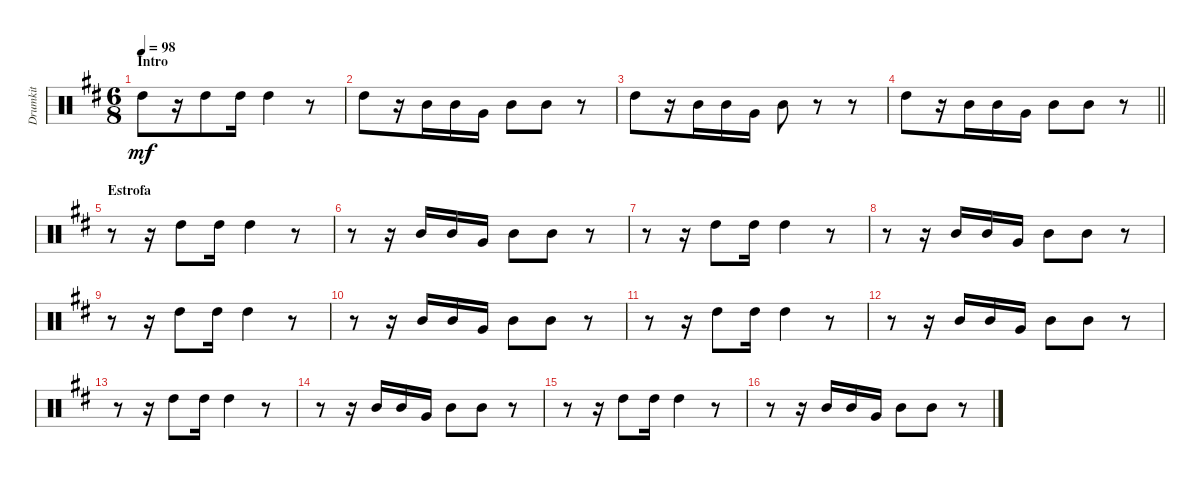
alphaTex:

\track ("Drumkit" "Drumkit") {instrument percussion}
\staff {score}
\articulation defaults
\ts (6 8)
\section ("" "Intro")
\tempo 98
\clef neutral
\ks d "High Tom (hit)".8{dy mf}
r.16 "High Tom (hit)".8 "High Tom (hit)".16 "High Tom (hit)".4 r.8 |
"High Tom (hit)".8 r.16 "Mid Tom (hit)".16 "Mid Tom (hit)".16 "Very Low Tom (hit)".16 "Mid Tom (hit)".8 "Mid Tom (hit)".8 r.8 |
"High Tom (hit)".8 r.16 "Mid Tom (hit)".16 "Mid Tom (hit)".16 "Very Low Tom (hit)".16 "Mid Tom (hit)".8 r.8 r.8 |
\barLineRight lightlight "High Tom (hit)".8
r.16 "Mid Tom (hit)".16 "Mid Tom (hit)".16 "Very Low Tom (hit)".16 "Mid Tom (hit)".8 "Mid Tom (hit)".8 r.8 |
\section ("" "Estrofa")
r.8 r.16 "High Tom (hit)".8 "High Tom (hit)".16 "High Tom (hit)".4 r.8 |
r.8 r.16 "Mid Tom (hit)".16 "Mid Tom (hit)".16 "Very Low Tom (hit)".16 "Mid Tom (hit)".8 "Mid Tom (hit)".8 r.8 |
r.8 r.16 "High Tom (hit)".8 "High Tom (hit)".16 "High Tom (hit)".4 r.8 |
r.8 r.16 "Mid Tom (hit)".16 "Mid Tom (hit)".16 "Very Low Tom (hit)".16 "Mid Tom (hit)".8 "Mid Tom (hit)".8 r.8 |
r.8 r.16 "High Tom (hit)".8 "High Tom (hit)".16 "High Tom (hit)".4 r.8 |
r.8 r.16 "Mid Tom (hit)".16 "Mid Tom (hit)".16 "Very Low Tom (hit)".16 "Mid Tom (hit)".8 "Mid Tom (hit)".8 r.8 |
r.8 r.16 "High Tom (hit)".8 "High Tom (hit)".16 "High Tom (hit)".4 r.8 |
r.8 r.16 "Mid Tom (hit)".16 "Mid Tom (hit)".16 "Very Low Tom (hit)".16 "Mid Tom (hit)".8 "Mid Tom (hit)".8 r.8 |
r.8 r.16 "High Tom (hit)".8 "High Tom (hit)".16 "High Tom (hit)".4 r.8 |
r.8 r.16 "Mid Tom (hit)".16 "Mid Tom (hit)".16 "Very Low Tom (hit)".16 "Mid Tom (hit)".8 "Mid Tom (hit)".8 r.8 |
r.8 r.16 "High Tom (hit)".8 "High Tom (hit)".16 "High Tom (hit)".4 r.8 |
r.8 r.16 "Mid Tom (hit)".16 "Mid Tom (hit)".16 "Very Low Tom (hit)".16 "Mid Tom (hit)".8 "Mid Tom (hit)".8 r.8
